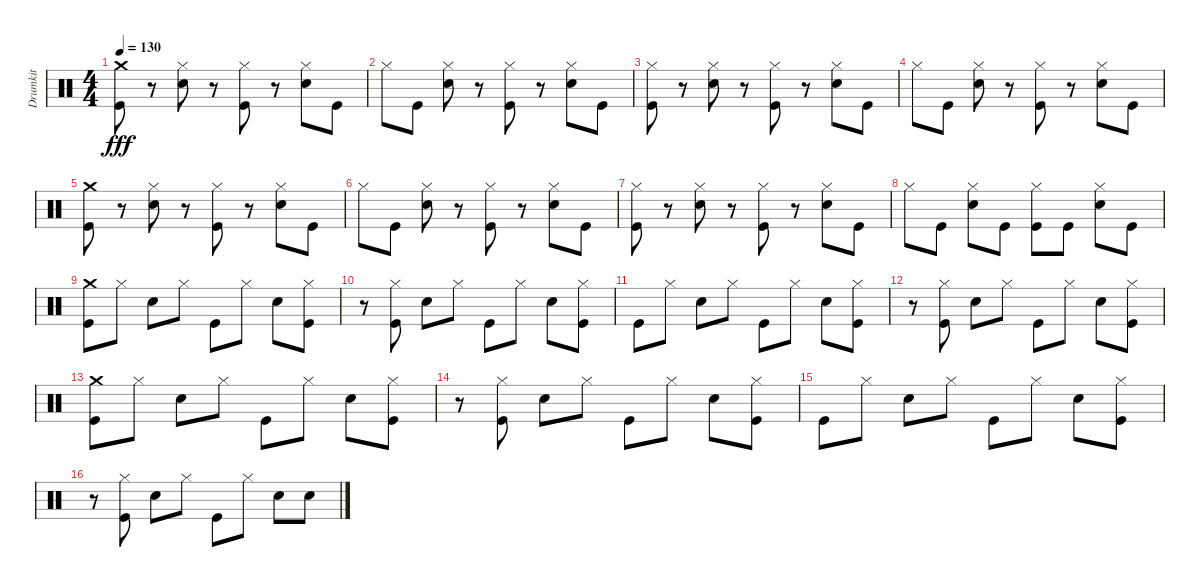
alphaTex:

\track ("Drumkit" "Drumkit") {instrument percussion}
\staff {score}
\articulation defaults
\ts (4 4)
\tempo 130
\clef neutral
\ks c
("Kick (hit)" "Crash medium (hit)").8{dy fff} r.8 ("Hi-Hat (closed)" "Snare (hit) 2").8 r.8 ("Hi-Hat (closed)" "Kick (hit)").8 r.8 ("Hi-Hat (closed)" "Snare (hit) 2").8 "Kick (hit)".8 |
"Hi-Hat (closed)".8 "Kick (hit)".8 ("Hi-Hat (closed)" "Snare (hit) 2").8 r.8 ("Hi-Hat (closed)" "Kick (hit)").8 r.8 ("Hi-Hat (closed)" "Snare (hit) 2").8 "Kick (hit)".8 |
("Kick (hit)" "Hi-Hat (closed)").8 r.8 ("Hi-Hat (closed)" "Snare (hit) 2").8 r.8 ("Hi-Hat (closed)" "Kick (hit)").8 r.8 ("Hi-Hat (closed)" "Snare (hit) 2").8 "Kick (hit)".8 |
"Hi-Hat (closed)".8 "Kick (hit)".8 ("Hi-Hat (closed)" "Snare (hit) 2").8 r.8 ("Hi-Hat (closed)" "Kick (hit)").8 r.8 ("Hi-Hat (closed)" "Snare (hit) 2").8 "Kick (hit)".8 |
("Kick (hit)" "Crash medium (hit)").8 r.8 ("Hi-Hat (closed)" "Snare (hit) 2").8 r.8 ("Hi-Hat (closed)" "Kick (hit)").8 r.8 ("Hi-Hat (closed)" "Snare (hit) 2").8 "Kick (hit)".8 |
"Hi-Hat (closed)".8 "Kick (hit)".8 ("Hi-Hat (closed)" "Snare (hit) 2").8 r.8 ("Hi-Hat (closed)" "Kick (hit)").8 r.8 ("Hi-Hat (closed)" "Snare (hit) 2").8 "Kick (hit)".8 |
("Kick (hit)" "Hi-Hat (closed)").8 r.8 ("Hi-Hat (closed)" "Snare (hit) 2").8 r.8 ("Hi-Hat (closed)" "Kick (hit)").8 r.8 ("Hi-Hat (closed)" "Snare (hit) 2").8 "Kick (hit)".8 |
"Hi-Hat (closed)".8 "Kick (hit)".8 ("Hi-Hat (closed)" "Snare (hit) 2").8 "Kick (hit)".8 ("Hi-Hat (closed)" "Kick (hit)").8 "Kick (hit)".8 ("Hi-Hat (closed)" "Snare (hit) 2").8 "Kick (hit)".8 |
("Kick (hit)" "Crash medium (hit)").8 "Hi-Hat (closed)".8 "Snare (hit) 2".8 "Hi-Hat (closed)".8 "Kick (hit)".8 "Hi-Hat (closed)".8 "Snare (hit) 2".8 ("Kick (hit)" "Hi-Hat (closed)").8 |
r.8 ("Kick (hit)" "Hi-Hat (closed)").8 "Snare (hit) 2".8 "Hi-Hat (closed)".8 "Kick (hit)".8 "Hi-Hat (closed)".8 "Snare (hit) 2".8 ("Kick (hit)" "Hi-Hat (closed)").8 |
"Kick (hit)".8 "Hi-Hat (closed)".8 "Snare (hit) 2".8 "Hi-Hat (closed)".8 "Kick (hit)".8 "Hi-Hat (closed)".8 "Snare (hit) 2".8 ("Kick (hit)" "Hi-Hat (closed)").8 |
r.8 ("Kick (hit)" "Hi-Hat (closed)").8 "Snare (hit) 2".8 "Hi-Hat (closed)".8 "Kick (hit)".8 "Hi-Hat (closed)".8 "Snare (hit) 2".8 ("Kick (hit)" "Hi-Hat (closed)").8 |
("Kick (hit)" "Crash medium (hit)").8 "Hi-Hat (closed)".8 "Snare (hit) 2".8 "Hi-Hat (closed)".8 "Kick (hit)".8 "Hi-Hat (closed)".8 "Snare (hit) 2".8 ("Kick (hit)" "Hi-Hat (closed)").8 |
r.8 ("Kick (hit)" "Hi-Hat (closed)").8 "Snare (hit) 2".8 "Hi-Hat (closed)".8 "Kick (hit)".8 "Hi-Hat (closed)".8 "Snare (hit) 2".8 ("Kick (hit)" "Hi-Hat (closed)").8 |
"Kick (hit)".8 "Hi-Hat (closed)".8 "Snare (hit) 2".8 "Hi-Hat (closed)".8 "Kick (hit)".8 "Hi-Hat (closed)".8 "Snare (hit) 2".8 ("Kick (hit)" "Hi-Hat (closed)").8 |
r.8 ("Kick (hit)" "Hi-Hat (closed)").8 "Snare (hit) 2".8 "Hi-Hat (closed)".8 "Kick (hit)".8 "Hi-Hat (closed)".8 "Snare (hit) 2".8 "Snare (hit) 2".8
